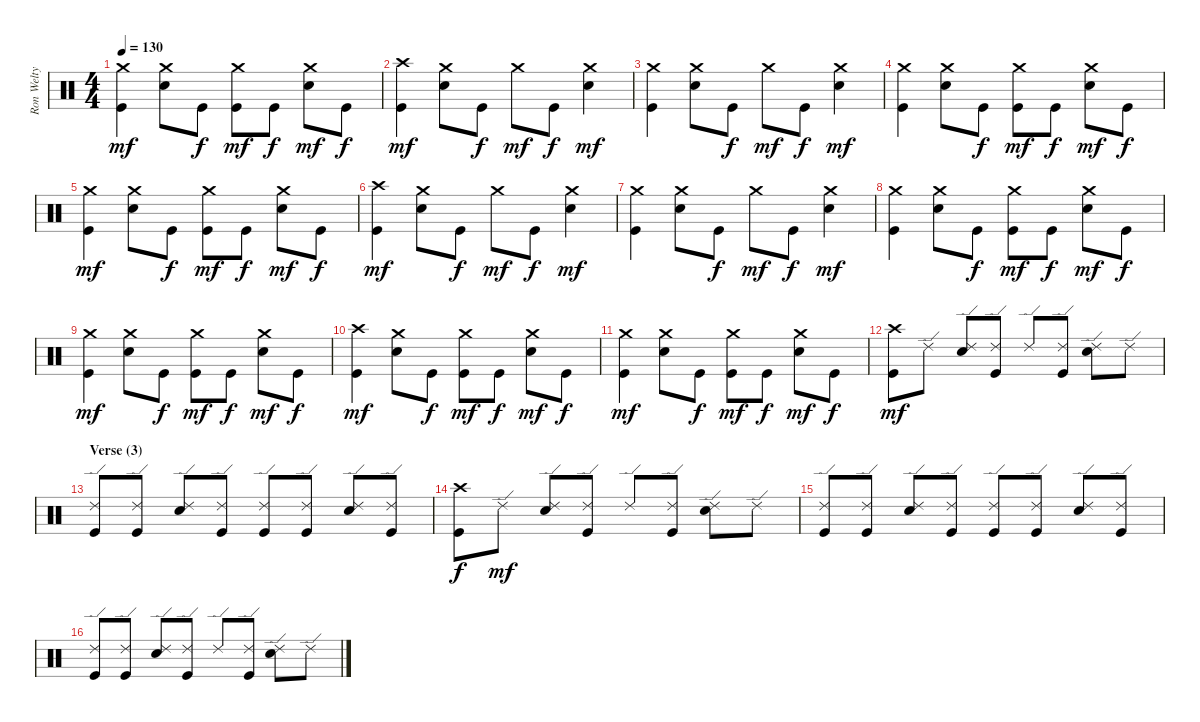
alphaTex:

\track ("Ron Welty" "Ron Welty") {instrument percussion}
\staff {score}
\articulation defaults
\ts (4 4)
\tempo 130
\clef neutral
\ks c
("Kick (hit)" "Crash medium (hit)").4{dy mf} ("Electric Snare (hit)" "Crash medium (hit)").8 "Kick (hit)".8{dy f} ("Kick (hit)" "Crash medium (hit)").8{dy mf} "Kick (hit)".8{dy f} ("Electric Snare (hit)" "Crash medium (hit)").8{dy mf} "Kick (hit)".8{dy f} |
("Kick (hit)" "Crash high (hit)").4{dy mf} ("Electric Snare (hit)" "Crash medium (hit)").8 "Kick (hit)".8{dy f} "Crash medium (hit)".8{dy mf} "Kick (hit)".8{dy f} ("Electric Snare (hit)" "Crash medium (hit)").4{dy mf} |
("Kick (hit)" "Crash medium (hit)").4 ("Electric Snare (hit)" "Crash medium (hit)").8 "Kick (hit)".8{dy f} "Crash medium (hit)".8{dy mf} "Kick (hit)".8{dy f} ("Electric Snare (hit)" "Crash medium (hit)").4{dy mf} |
("Kick (hit)" "Crash medium (hit)").4 ("Electric Snare (hit)" "Crash medium (hit)").8 "Kick (hit)".8{dy f} ("Kick (hit)" "Crash medium (hit)").8{dy mf} "Kick (hit)".8{dy f} ("Electric Snare (hit)" "Crash medium (hit)").8{dy mf} "Kick (hit)".8{dy f} |
("Kick (hit)" "Crash medium (hit)").4{dy mf} ("Electric Snare (hit)" "Crash medium (hit)").8 "Kick (hit)".8{dy f} ("Kick (hit)" "Crash medium (hit)").8{dy mf} "Kick (hit)".8{dy f} ("Electric Snare (hit)" "Crash medium (hit)").8{dy mf} "Kick (hit)".8{dy f} |
("Kick (hit)" "Crash high (hit)").4{dy mf} ("Electric Snare (hit)" "Crash medium (hit)").8 "Kick (hit)".8{dy f} "Crash medium (hit)".8{dy mf} "Kick (hit)".8{dy f} ("Electric Snare (hit)" "Crash medium (hit)").4{dy mf} |
("Kick (hit)" "Crash medium (hit)").4 ("Electric Snare (hit)" "Crash medium (hit)").8 "Kick (hit)".8{dy f} "Crash medium (hit)".8{dy mf} "Kick (hit)".8{dy f} ("Electric Snare (hit)" "Crash medium (hit)").4{dy mf} |
("Kick (hit)" "Crash medium (hit)").4 ("Electric Snare (hit)" "Crash medium (hit)").8 "Kick (hit)".8{dy f} ("Kick (hit)" "Crash medium (hit)").8{dy mf} "Kick (hit)".8{dy f} ("Electric Snare (hit)" "Crash medium (hit)").8{dy mf} "Kick (hit)".8{dy f} |
("Kick (hit)" "Crash medium (hit)").4{dy mf} ("Electric Snare (hit)" "Crash medium (hit)").8 "Kick (hit)".8{dy f} ("Kick (hit)" "Crash medium (hit)").8{dy mf} "Kick (hit)".8{dy f} ("Electric Snare (hit)" "Crash medium (hit)").8{dy mf} "Kick (hit)".8{dy f} |
("Kick (hit)" "Crash high (hit)").4{dy mf} ("Electric Snare (hit)" "Crash medium (hit)").8 "Kick (hit)".8{dy f} ("Kick (hit)" "Crash medium (hit)").8{dy mf} "Kick (hit)".8{dy f} ("Electric Snare (hit)" "Crash medium (hit)").8{dy mf} "Kick (hit)".8{dy f} |
("Kick (hit)" "Crash medium (hit)").4{dy mf} ("Electric Snare (hit)" "Crash medium (hit)").8 "Kick (hit)".8{dy f} ("Kick (hit)" "Crash medium (hit)").8{dy mf} "Kick (hit)".8{dy f} ("Electric Snare (hit)" "Crash medium (hit)").8{dy mf} "Kick (hit)".8{dy f} |
("Kick (hit)" "Crash high (hit)").8{dy mf} "Ride (edge) 2".8 ("Electric Snare (hit)" "Ride (edge) 2").8 ("Kick (hit)" "Ride (edge) 2").8 "Ride (edge) 2".8 ("Kick (hit)" "Ride (edge) 2").8 ("Electric Snare (hit)" "Ride (edge) 2").8 "Ride (edge) 2".8 |
\section ("" "Verse (3)")
("Kick (hit)" "Ride (edge) 2").8 ("Kick (hit)" "Ride (edge) 2").8 ("Electric Snare (hit)" "Ride (edge) 2").8 ("Kick (hit)" "Ride (edge) 2").8 ("Kick (hit)" "Ride (edge) 2").8 ("Kick (hit)" "Ride (edge) 2").8 ("Electric Snare (hit)" "Ride (edge) 2").8 ("Kick (hit)" "Ride (edge) 2").8 |
("Kick (hit)" "Crash high (hit)").8{dy f} "Ride (edge) 2".8{dy mf} ("Electric Snare (hit)" "Ride (edge) 2").8 ("Kick (hit)" "Ride (edge) 2").8 "Ride (edge) 2".8 ("Kick (hit)" "Ride (edge) 2").8 ("Electric Snare (hit)" "Ride (edge) 2").8 "Ride (edge) 2".8 |
("Kick (hit)" "Ride (edge) 2").8 ("Kick (hit)" "Ride (edge) 2").8 ("Electric Snare (hit)" "Ride (edge) 2").8 ("Kick (hit)" "Ride (edge) 2").8 ("Kick (hit)" "Ride (edge) 2").8 ("Kick (hit)" "Ride (edge) 2").8 ("Electric Snare (hit)" "Ride (edge) 2").8 ("Kick (hit)" "Ride (edge) 2").8 |
("Kick (hit)" "Ride (edge) 2").8 ("Kick (hit)" "Ride (edge) 2").8 ("Electric Snare (hit)" "Ride (edge) 2").8 ("Kick (hit)" "Ride (edge) 2").8 "Ride (edge) 2".8 ("Kick (hit)" "Ride (edge) 2").8 ("Electric Snare (hit)" "Ride (edge) 2").8 "Ride (edge) 2".8
